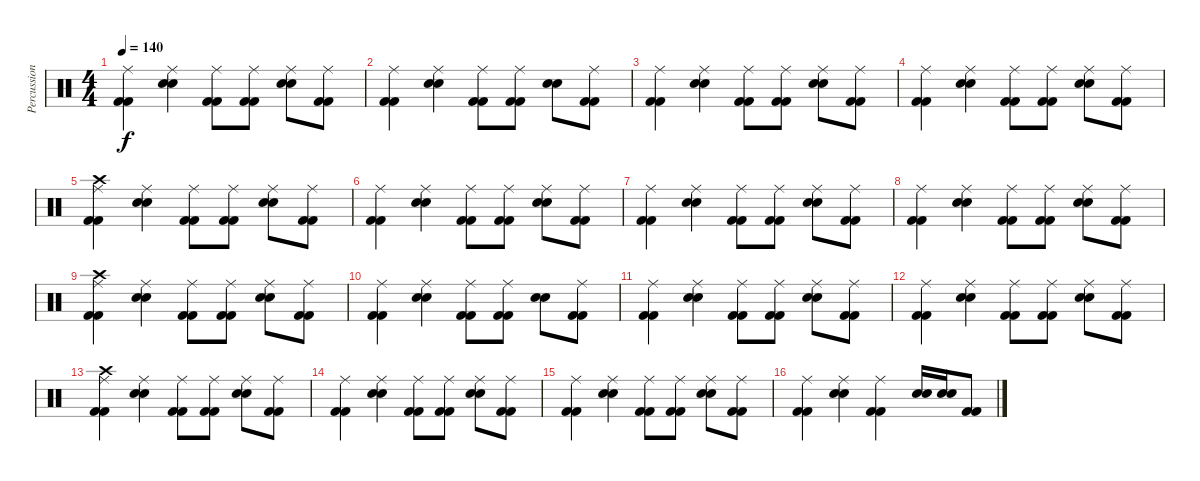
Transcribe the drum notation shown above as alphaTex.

\track ("Percussion" "Percussion") {instrument percussion}
\staff {score}
\articulation defaults
\ts (4 4)
\tempo 140
\clef neutral
\ks c
("Kick (hit) 2" "Kick (hit) 2" "Ride (middle)").4{dy f} ("Snare (hit) 2" "Snare (hit) 2" "Ride (middle)").4 ("Kick (hit) 2" "Kick (hit) 2" "Ride (middle)").8 ("Kick (hit) 2" "Kick (hit) 2" "Ride (middle)").8 ("Snare (hit) 2" "Snare (hit) 2" "Ride (middle)").8 ("Kick (hit) 2" "Kick (hit) 2" "Ride (middle)").8 |
("Kick (hit) 2" "Kick (hit) 2" "Ride (middle)").4 ("Snare (hit) 2" "Snare (hit) 2" "Ride (middle)").4 ("Kick (hit) 2" "Kick (hit) 2" "Ride (middle)").8 ("Kick (hit) 2" "Kick (hit) 2" "Ride (middle)").8 ("Snare (hit) 2" "Snare (hit) 2").8 ("Kick (hit) 2" "Kick (hit) 2" "Ride (middle)").8 |
("Kick (hit) 2" "Kick (hit) 2" "Ride (middle)").4 ("Snare (hit) 2" "Snare (hit) 2" "Ride (middle)").4 ("Kick (hit) 2" "Kick (hit) 2" "Ride (middle)").8 ("Kick (hit) 2" "Kick (hit) 2" "Ride (middle)").8 ("Snare (hit) 2" "Snare (hit) 2" "Ride (middle)").8 ("Kick (hit) 2" "Kick (hit) 2" "Ride (middle)").8 |
("Kick (hit) 2" "Kick (hit) 2" "Ride (middle)").4 ("Snare (hit) 2" "Snare (hit) 2" "Ride (middle)").4 ("Kick (hit) 2" "Kick (hit) 2" "Ride (middle)").8 ("Kick (hit) 2" "Kick (hit) 2" "Ride (middle)").8 ("Snare (hit) 2" "Snare (hit) 2" "Ride (middle)").8 ("Kick (hit) 2" "Kick (hit) 2" "Ride (middle)").8 |
("Kick (hit) 2" "Kick (hit) 2" "Ride (middle)" "Crash high (hit)").4 ("Snare (hit) 2" "Snare (hit) 2" "Ride (middle)").4 ("Kick (hit) 2" "Kick (hit) 2" "Ride (middle)").8 ("Kick (hit) 2" "Kick (hit) 2" "Ride (middle)").8 ("Snare (hit) 2" "Snare (hit) 2" "Ride (middle)").8 ("Kick (hit) 2" "Kick (hit) 2" "Ride (middle)").8 |
("Kick (hit) 2" "Kick (hit) 2" "Ride (middle)").4 ("Snare (hit) 2" "Snare (hit) 2" "Ride (middle)").4 ("Kick (hit) 2" "Kick (hit) 2" "Ride (middle)").8 ("Kick (hit) 2" "Kick (hit) 2" "Ride (middle)").8 ("Snare (hit) 2" "Snare (hit) 2" "Ride (middle)").8 ("Kick (hit) 2" "Kick (hit) 2" "Ride (middle)").8 |
("Kick (hit) 2" "Kick (hit) 2" "Ride (middle)").4 ("Snare (hit) 2" "Snare (hit) 2" "Ride (middle)").4 ("Kick (hit) 2" "Kick (hit) 2" "Ride (middle)").8 ("Kick (hit) 2" "Kick (hit) 2" "Ride (middle)").8 ("Snare (hit) 2" "Snare (hit) 2" "Ride (middle)").8 ("Kick (hit) 2" "Kick (hit) 2" "Ride (middle)").8 |
("Kick (hit) 2" "Kick (hit) 2" "Ride (middle)").4 ("Snare (hit) 2" "Snare (hit) 2" "Ride (middle)").4 ("Kick (hit) 2" "Kick (hit) 2" "Ride (middle)").8 ("Kick (hit) 2" "Kick (hit) 2" "Ride (middle)").8 ("Snare (hit) 2" "Snare (hit) 2" "Ride (middle)").8 ("Kick (hit) 2" "Kick (hit) 2" "Ride (middle)").8 |
("Kick (hit) 2" "Kick (hit) 2" "Ride (middle)" "Crash high (hit)").4 ("Snare (hit) 2" "Snare (hit) 2" "Ride (middle)").4 ("Kick (hit) 2" "Kick (hit) 2" "Ride (middle)").8 ("Kick (hit) 2" "Kick (hit) 2" "Ride (middle)").8 ("Snare (hit) 2" "Snare (hit) 2" "Ride (middle)").8 ("Kick (hit) 2" "Kick (hit) 2" "Ride (middle)").8 |
("Kick (hit) 2" "Kick (hit) 2" "Ride (middle)").4 ("Snare (hit) 2" "Snare (hit) 2" "Ride (middle)").4 ("Kick (hit) 2" "Kick (hit) 2" "Ride (middle)").8 ("Kick (hit) 2" "Kick (hit) 2" "Ride (middle)").8 ("Snare (hit) 2" "Snare (hit) 2").8 ("Kick (hit) 2" "Kick (hit) 2" "Ride (middle)").8 |
("Kick (hit) 2" "Kick (hit) 2" "Ride (middle)").4 ("Snare (hit) 2" "Snare (hit) 2" "Ride (middle)").4 ("Kick (hit) 2" "Kick (hit) 2" "Ride (middle)").8 ("Kick (hit) 2" "Kick (hit) 2" "Ride (middle)").8 ("Snare (hit) 2" "Snare (hit) 2" "Ride (middle)").8 ("Kick (hit) 2" "Kick (hit) 2" "Ride (middle)").8 |
("Kick (hit) 2" "Kick (hit) 2" "Ride (middle)").4 ("Snare (hit) 2" "Snare (hit) 2" "Ride (middle)").4 ("Kick (hit) 2" "Kick (hit) 2" "Ride (middle)").8 ("Kick (hit) 2" "Kick (hit) 2" "Ride (middle)").8 ("Snare (hit) 2" "Snare (hit) 2" "Ride (middle)").8 ("Kick (hit) 2" "Kick (hit) 2" "Ride (middle)").8 |
("Kick (hit) 2" "Kick (hit) 2" "Ride (middle)" "Crash high (hit)").4 ("Snare (hit) 2" "Snare (hit) 2" "Ride (middle)").4 ("Kick (hit) 2" "Kick (hit) 2" "Ride (middle)").8 ("Kick (hit) 2" "Kick (hit) 2" "Ride (middle)").8 ("Snare (hit) 2" "Snare (hit) 2" "Ride (middle)").8 ("Kick (hit) 2" "Kick (hit) 2" "Ride (middle)").8 |
("Kick (hit) 2" "Kick (hit) 2" "Ride (middle)").4 ("Snare (hit) 2" "Snare (hit) 2" "Ride (middle)").4 ("Kick (hit) 2" "Kick (hit) 2" "Ride (middle)").8 ("Kick (hit) 2" "Kick (hit) 2" "Ride (middle)").8 ("Snare (hit) 2" "Snare (hit) 2" "Ride (middle)").8 ("Kick (hit) 2" "Kick (hit) 2" "Ride (middle)").8 |
("Kick (hit) 2" "Kick (hit) 2" "Ride (middle)").4 ("Snare (hit) 2" "Snare (hit) 2" "Ride (middle)").4 ("Kick (hit) 2" "Kick (hit) 2" "Ride (middle)").8 ("Kick (hit) 2" "Kick (hit) 2" "Ride (middle)").8 ("Snare (hit) 2" "Snare (hit) 2" "Ride (middle)").8 ("Kick (hit) 2" "Kick (hit) 2" "Ride (middle)").8 |
("Kick (hit) 2" "Kick (hit) 2" "Ride (middle)").4 ("Snare (hit) 2" "Snare (hit) 2" "Ride (middle)").4 ("Kick (hit) 2" "Kick (hit) 2" "Ride (middle)").4 ("Snare (hit) 2" "Snare (hit) 2").16 ("Snare (hit) 2" "Snare (hit) 2").16 ("Kick (hit) 2" "Kick (hit) 2").8
